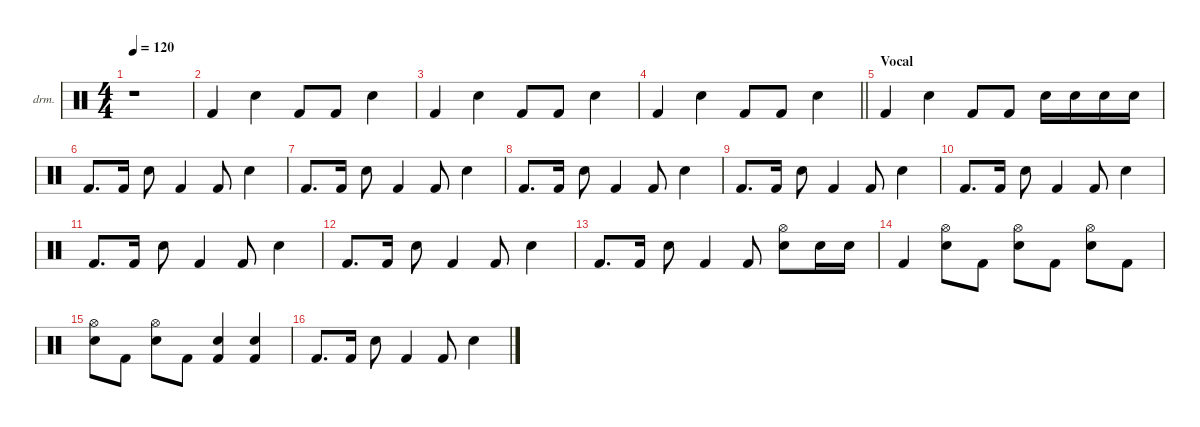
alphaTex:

\defaultSystemsLayout 4
\hideDynamics
\bracketExtendMode nobrackets
\firstSystemTrackNameOrientation horizontal
\otherSystemsTrackNameOrientation horizontal
\track ("Percussion" "drm.") {instrument percussion}
\staff {score}
\articulation defaults
\ts (4 4)
\beaming (8 2 2 2 2)
\tempo 120
\clef neutral
\ks c
r.1{dy f} |
"Kick (hit) 2".4 "Snare (hit) 2".4 "Kick (hit) 2".8 "Kick (hit) 2".8 "Snare (hit) 2".4 |
"Kick (hit) 2".4 "Snare (hit) 2".4 "Kick (hit) 2".8 "Kick (hit) 2".8 "Snare (hit) 2".4 |
\barLineRight lightlight "Kick (hit) 2".4 "Snare (hit) 2".4 "Kick (hit) 2".8 "Kick (hit) 2".8 "Snare (hit) 2".4
|
\section ("" "Vocal")
"Kick (hit) 2".4 "Snare (hit) 2".4 "Kick (hit) 2".8 "Kick (hit) 2".8 "Snare (hit) 2".16 "Snare (hit) 2".16 "Snare (hit) 2".16 "Snare (hit) 2".16 |
"Kick (hit) 2".8{d} "Kick (hit) 2".16 "Snare (hit) 2".8 "Kick (hit) 2".4 "Kick (hit) 2".8 "Snare (hit) 2".4 |
"Kick (hit) 2".8{d} "Kick (hit) 2".16 "Snare (hit) 2".8 "Kick (hit) 2".4 "Kick (hit) 2".8 "Snare (hit) 2".4 |
"Kick (hit) 2".8{d} "Kick (hit) 2".16 "Snare (hit) 2".8 "Kick (hit) 2".4 "Kick (hit) 2".8 "Snare (hit) 2".4 |
"Kick (hit) 2".8{d} "Kick (hit) 2".16 "Snare (hit) 2".8 "Kick (hit) 2".4 "Kick (hit) 2".8 "Snare (hit) 2".4 |
"Kick (hit) 2".8{d} "Kick (hit) 2".16 "Snare (hit) 2".8 "Kick (hit) 2".4 "Kick (hit) 2".8 "Snare (hit) 2".4 |
"Kick (hit) 2".8{d} "Kick (hit) 2".16 "Snare (hit) 2".8 "Kick (hit) 2".4 "Kick (hit) 2".8 "Snare (hit) 2".4 |
"Kick (hit) 2".8{d} "Kick (hit) 2".16 "Snare (hit) 2".8 "Kick (hit) 2".4 "Kick (hit) 2".8 "Snare (hit) 2".4 |
"Kick (hit) 2".8{d} "Kick (hit) 2".16 "Snare (hit) 2".8 "Kick (hit) 2".4 "Kick (hit) 2".8 ("Snare (hit) 2" "Hi-Hat (open)").8 "Snare (hit) 2".16 "Snare (hit) 2".16 |
"Kick (hit) 2".4 ("Snare (hit) 2" "Hi-Hat (open)").8 "Kick (hit) 2".8 ("Snare (hit) 2" "Hi-Hat (open)").8 "Kick (hit) 2".8 ("Snare (hit) 2" "Hi-Hat (open)").8 "Kick (hit) 2".8 |
("Snare (hit) 2" "Hi-Hat (open)").8 "Kick (hit) 2".8 ("Snare (hit) 2" "Hi-Hat (open)").8 "Kick (hit) 2".8 ("Snare (hit) 2" "Kick (hit) 2").4 ("Snare (hit) 2" "Kick (hit) 2").4 |
"Kick (hit) 2".8{d} "Kick (hit) 2".16 "Snare (hit) 2".8 "Kick (hit) 2".4 "Kick (hit) 2".8 "Snare (hit) 2".4
